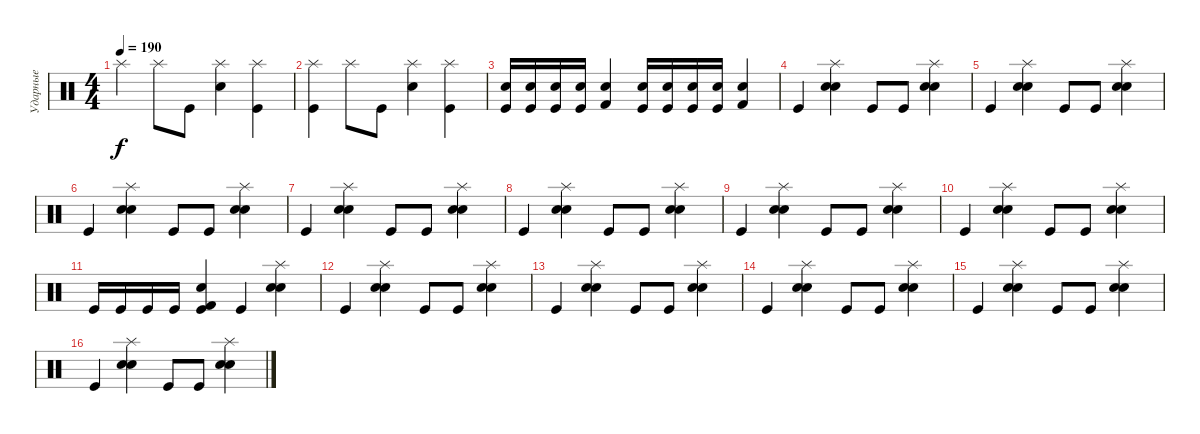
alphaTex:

\track ("Ударные" "Ударные") {instrument percussion}
\staff {score}
\articulation defaults
\ts (4 4)
\tempo 190
\clef neutral
\ks c "Splash (hit)".4{dy f} "Splash (hit)".8 "Kick (hit)".8
("Splash (hit)" "Electric Snare (hit)").4 ("Splash (hit)" "Kick (hit)").4 |
("Splash (hit)" "Kick (hit)").4 "Splash (hit)".8 "Kick (hit)".8 ("Splash (hit)" "Electric Snare (hit)").4 ("Splash (hit)" "Kick (hit)").4 |
("Electric Snare (hit)" "Kick (hit)").16 ("Electric Snare (hit)" "Kick (hit)").16 ("Electric Snare (hit)" "Kick (hit)").16 ("Electric Snare (hit)" "Kick (hit)").16 ("Electric Snare (hit)" "Kick (hit) 2").4 ("Electric Snare (hit)" "Kick (hit)").16 ("Electric Snare (hit)" "Kick (hit)").16 ("Electric Snare (hit)" "Kick (hit)").16 ("Electric Snare (hit)" "Kick (hit)").16 ("Electric Snare (hit)" "Kick (hit) 2").4 |
"Kick (hit)".4 ("Splash (hit)" "Snare (hit) 2" "Electric Snare (hit)").4 "Kick (hit)".8 "Kick (hit)".8 ("Splash (hit)" "Snare (hit) 2" "Electric Snare (hit)").4 |
"Kick (hit)".4 ("Splash (hit)" "Snare (hit) 2" "Electric Snare (hit)").4 "Kick (hit)".8 "Kick (hit)".8 ("Splash (hit)" "Snare (hit) 2" "Electric Snare (hit)").4 |
"Kick (hit)".4 ("Splash (hit)" "Snare (hit) 2" "Electric Snare (hit)").4 "Kick (hit)".8 "Kick (hit)".8 ("Splash (hit)" "Snare (hit) 2" "Electric Snare (hit)").4 |
"Kick (hit)".4 ("Splash (hit)" "Snare (hit) 2" "Electric Snare (hit)").4 "Kick (hit)".8 "Kick (hit)".8 ("Splash (hit)" "Snare (hit) 2" "Electric Snare (hit)").4 |
"Kick (hit)".4 ("Splash (hit)" "Snare (hit) 2" "Electric Snare (hit)").4 "Kick (hit)".8 "Kick (hit)".8 ("Splash (hit)" "Snare (hit) 2" "Electric Snare (hit)").4 |
"Kick (hit)".4 ("Splash (hit)" "Snare (hit) 2" "Electric Snare (hit)").4 "Kick (hit)".8 "Kick (hit)".8 ("Splash (hit)" "Snare (hit) 2" "Electric Snare (hit)").4 |
"Kick (hit)".4 ("Splash (hit)" "Snare (hit) 2" "Electric Snare (hit)").4 "Kick (hit)".8 "Kick (hit)".8 ("Splash (hit)" "Snare (hit) 2" "Electric Snare (hit)").4 |
"Kick (hit)".16 "Kick (hit)".16 "Kick (hit)".16 "Kick (hit)".16 ("Electric Snare (hit)" "Kick (hit)" "Kick (hit) 2").4 "Kick (hit)".4 ("Splash (hit)" "Snare (hit) 2" "Electric Snare (hit)").4 |
"Kick (hit)".4 ("Splash (hit)" "Snare (hit) 2" "Electric Snare (hit)").4 "Kick (hit)".8 "Kick (hit)".8 ("Splash (hit)" "Snare (hit) 2" "Electric Snare (hit)").4 |
"Kick (hit)".4 ("Splash (hit)" "Snare (hit) 2" "Electric Snare (hit)").4 "Kick (hit)".8 "Kick (hit)".8 ("Splash (hit)" "Snare (hit) 2" "Electric Snare (hit)").4 |
"Kick (hit)".4 ("Splash (hit)" "Snare (hit) 2" "Electric Snare (hit)").4 "Kick (hit)".8 "Kick (hit)".8 ("Splash (hit)" "Snare (hit) 2" "Electric Snare (hit)").4 |
"Kick (hit)".4 ("Splash (hit)" "Snare (hit) 2" "Electric Snare (hit)").4 "Kick (hit)".8 "Kick (hit)".8 ("Splash (hit)" "Snare (hit) 2" "Electric Snare (hit)").4 |
"Kick (hit)".4 ("Splash (hit)" "Snare (hit) 2" "Electric Snare (hit)").4 "Kick (hit)".8 "Kick (hit)".8 ("Splash (hit)" "Snare (hit) 2" "Electric Snare (hit)").4
